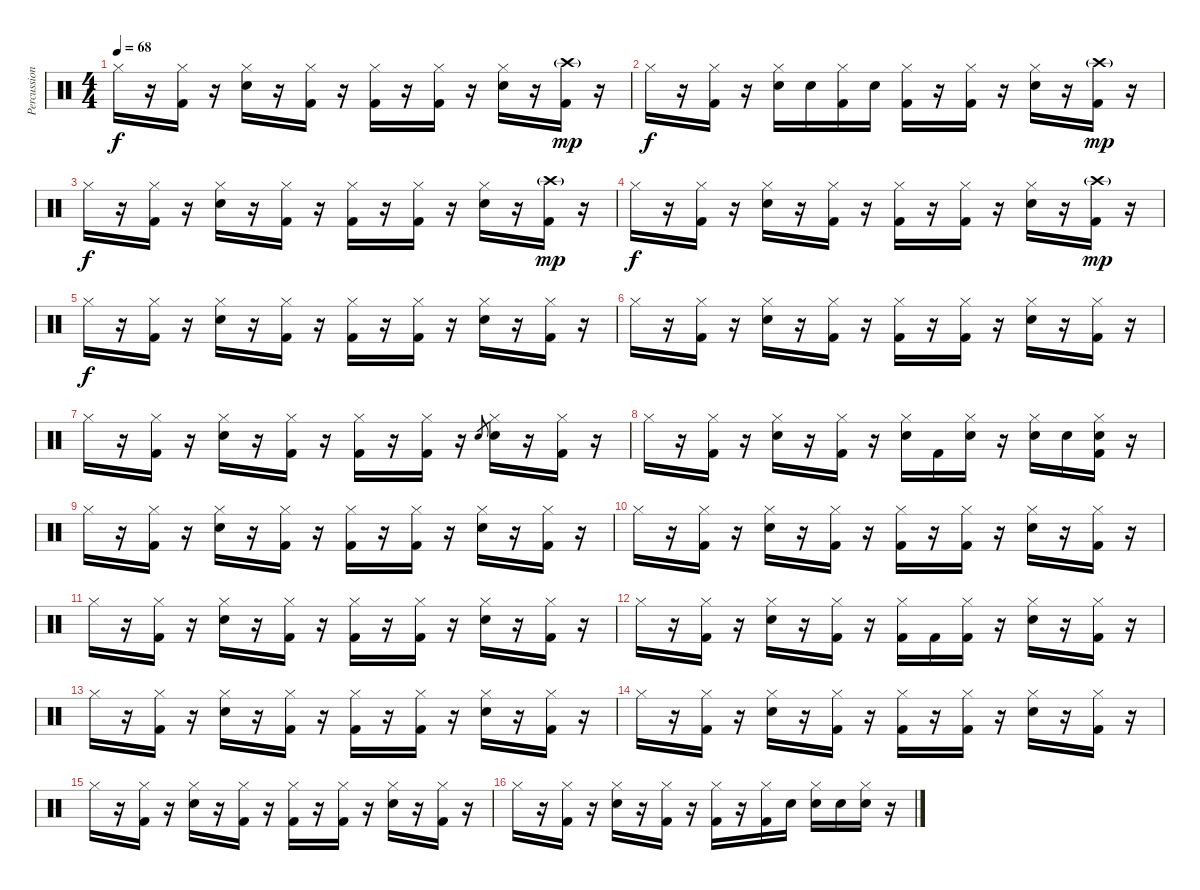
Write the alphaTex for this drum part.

\track ("Percussion" "Percussion") {instrument percussion}
\staff {score}
\articulation defaults
\ts (4 4)
\tempo 68
\clef neutral
\ks c "Hi-Hat (closed)".16{dy f}
r.16 ("Hi-Hat (closed)" "Kick (hit) 2").16 r.16 ("Hi-Hat (closed)" "Snare (hit) 2").16 r.16 ("Hi-Hat (closed)" "Kick (hit) 2").16 r.16 ("Hi-Hat (closed)" "Kick (hit) 2").16 r.16 ("Hi-Hat (closed)" "Kick (hit) 2").16 r.16 ("Hi-Hat (closed)" "Snare (hit) 2").16 r.16 ("Crash high (hit)"{g} "Kick (hit) 2").16{dy mp} r.16 |
"Hi-Hat (closed)".16{dy f} r.16 ("Hi-Hat (closed)" "Kick (hit) 2").16 r.16 ("Hi-Hat (closed)" "Snare (hit) 2").16 "Snare (hit) 2".16 ("Hi-Hat (closed)" "Kick (hit) 2").16 "Snare (hit) 2".16 ("Hi-Hat (closed)" "Kick (hit) 2").16 r.16 ("Hi-Hat (closed)" "Kick (hit) 2").16 r.16 ("Hi-Hat (closed)" "Snare (hit) 2").16 r.16 ("Crash high (hit)"{g} "Kick (hit) 2").16{dy mp} r.16 |
"Hi-Hat (closed)".16{dy f} r.16 ("Hi-Hat (closed)" "Kick (hit) 2").16 r.16 ("Hi-Hat (closed)" "Snare (hit) 2").16 r.16 ("Hi-Hat (closed)" "Kick (hit) 2").16 r.16 ("Hi-Hat (closed)" "Kick (hit) 2").16 r.16 ("Hi-Hat (closed)" "Kick (hit) 2").16 r.16 ("Hi-Hat (closed)" "Snare (hit) 2").16 r.16 ("Crash high (hit)"{g} "Kick (hit) 2").16{dy mp} r.16 |
"Hi-Hat (closed)".16{dy f} r.16 ("Hi-Hat (closed)" "Kick (hit) 2").16 r.16 ("Hi-Hat (closed)" "Snare (hit) 2").16 r.16 ("Hi-Hat (closed)" "Kick (hit) 2").16 r.16 ("Hi-Hat (closed)" "Kick (hit) 2").16 r.16 ("Hi-Hat (closed)" "Kick (hit) 2").16 r.16 ("Hi-Hat (closed)" "Snare (hit) 2").16 r.16 ("Crash high (hit)"{g} "Kick (hit) 2").16{dy mp} r.16 |
"Hi-Hat (closed)".16{dy f} r.16 ("Hi-Hat (closed)" "Kick (hit) 2").16 r.16 ("Hi-Hat (closed)" "Snare (hit) 2").16 r.16 ("Hi-Hat (closed)" "Kick (hit) 2").16 r.16 ("Hi-Hat (closed)" "Kick (hit) 2").16 r.16 ("Hi-Hat (closed)" "Kick (hit) 2").16 r.16 ("Hi-Hat (closed)" "Snare (hit) 2").16 r.16 ("Hi-Hat (closed)" "Kick (hit) 2").16 r.16 |
"Hi-Hat (closed)".16 r.16 ("Hi-Hat (closed)" "Kick (hit) 2").16 r.16 ("Hi-Hat (closed)" "Snare (hit) 2").16 r.16 ("Hi-Hat (closed)" "Kick (hit) 2").16 r.16 ("Hi-Hat (closed)" "Kick (hit) 2").16 r.16 ("Hi-Hat (closed)" "Kick (hit) 2").16 r.16 ("Hi-Hat (closed)" "Snare (hit) 2").16 r.16 ("Hi-Hat (closed)" "Kick (hit) 2").16 r.16 |
"Hi-Hat (closed)".16 r.16 ("Hi-Hat (closed)" "Kick (hit) 2").16 r.16 ("Hi-Hat (closed)" "Snare (hit) 2").16 r.16 ("Hi-Hat (closed)" "Kick (hit) 2").16 r.16 ("Hi-Hat (closed)" "Kick (hit) 2").16 r.16 ("Hi-Hat (closed)" "Kick (hit) 2").16 r.16 "Snare (hit) 2".8{gr} ("Hi-Hat (closed)" "Snare (hit) 2").16 r.16 ("Hi-Hat (closed)" "Kick (hit) 2").16 r.16 |
"Hi-Hat (closed)".16 r.16 ("Hi-Hat (closed)" "Kick (hit) 2").16 r.16 ("Hi-Hat (closed)" "Snare (hit) 2").16 r.16 ("Hi-Hat (closed)" "Kick (hit) 2").16 r.16 ("Hi-Hat (closed)" "Snare (hit) 2").16 "Kick (hit) 2".16 ("Hi-Hat (closed)" "Snare (hit) 2").16 r.16 ("Hi-Hat (closed)" "Snare (hit) 2").16 "Snare (hit) 2".16 ("Hi-Hat (closed)" "Snare (hit) 2" "Kick (hit) 2").16 r.16 |
"Hi-Hat (closed)".16 r.16 ("Hi-Hat (closed)" "Kick (hit) 2").16 r.16 ("Hi-Hat (closed)" "Snare (hit) 2").16 r.16 ("Hi-Hat (closed)" "Kick (hit) 2").16 r.16 ("Hi-Hat (closed)" "Kick (hit) 2").16 r.16 ("Hi-Hat (closed)" "Kick (hit) 2").16 r.16 ("Hi-Hat (closed)" "Snare (hit) 2").16 r.16 ("Hi-Hat (closed)" "Kick (hit) 2").16 r.16 |
"Hi-Hat (closed)".16 r.16 ("Hi-Hat (closed)" "Kick (hit) 2").16 r.16 ("Hi-Hat (closed)" "Snare (hit) 2").16 r.16 ("Hi-Hat (closed)" "Kick (hit) 2").16 r.16 ("Hi-Hat (closed)" "Kick (hit) 2").16 r.16 ("Hi-Hat (closed)" "Kick (hit) 2").16 r.16 ("Hi-Hat (closed)" "Snare (hit) 2").16 r.16 ("Hi-Hat (closed)" "Kick (hit) 2").16 r.16 |
"Hi-Hat (closed)".16 r.16 ("Hi-Hat (closed)" "Kick (hit) 2").16 r.16 ("Hi-Hat (closed)" "Snare (hit) 2").16 r.16 ("Hi-Hat (closed)" "Kick (hit) 2").16 r.16 ("Hi-Hat (closed)" "Kick (hit) 2").16 r.16 ("Hi-Hat (closed)" "Kick (hit) 2").16 r.16 ("Hi-Hat (closed)" "Snare (hit) 2").16 r.16 ("Hi-Hat (closed)" "Kick (hit) 2").16 r.16 |
"Hi-Hat (closed)".16 r.16 ("Hi-Hat (closed)" "Kick (hit) 2").16 r.16 ("Hi-Hat (closed)" "Snare (hit) 2").16 r.16 ("Hi-Hat (closed)" "Kick (hit) 2").16 r.16 ("Hi-Hat (closed)" "Kick (hit) 2").16 "Kick (hit) 2".16 ("Hi-Hat (closed)" "Kick (hit) 2").16 r.16 ("Hi-Hat (closed)" "Snare (hit) 2").16 r.16 ("Hi-Hat (closed)" "Kick (hit) 2").16 r.16 |
"Hi-Hat (closed)".16 r.16 ("Hi-Hat (closed)" "Kick (hit) 2").16 r.16 ("Hi-Hat (closed)" "Snare (hit) 2").16 r.16 ("Hi-Hat (closed)" "Kick (hit) 2").16 r.16 ("Hi-Hat (closed)" "Kick (hit) 2").16 r.16 ("Hi-Hat (closed)" "Kick (hit) 2").16 r.16 ("Hi-Hat (closed)" "Snare (hit) 2").16 r.16 ("Hi-Hat (closed)" "Kick (hit) 2").16 r.16 |
"Hi-Hat (closed)".16 r.16 ("Hi-Hat (closed)" "Kick (hit) 2").16 r.16 ("Hi-Hat (closed)" "Snare (hit) 2").16 r.16 ("Hi-Hat (closed)" "Kick (hit) 2").16 r.16 ("Hi-Hat (closed)" "Kick (hit) 2").16 r.16 ("Hi-Hat (closed)" "Kick (hit) 2").16 r.16 ("Hi-Hat (closed)" "Snare (hit) 2").16 r.16 ("Hi-Hat (closed)" "Kick (hit) 2").16 r.16 |
"Hi-Hat (closed)".16 r.16 ("Hi-Hat (closed)" "Kick (hit) 2").16 r.16 ("Hi-Hat (closed)" "Snare (hit) 2").16 r.16 ("Hi-Hat (closed)" "Kick (hit) 2").16 r.16 ("Hi-Hat (closed)" "Kick (hit) 2").16 r.16 ("Hi-Hat (closed)" "Kick (hit) 2").16 r.16 ("Hi-Hat (closed)" "Snare (hit) 2").16 r.16 ("Hi-Hat (closed)" "Kick (hit) 2").16 r.16 |
"Hi-Hat (closed)".16 r.16 ("Hi-Hat (closed)" "Kick (hit) 2").16 r.16 ("Hi-Hat (closed)" "Snare (hit) 2").16 r.16 ("Hi-Hat (closed)" "Kick (hit) 2").16 r.16 ("Hi-Hat (closed)" "Kick (hit) 2").16 r.16 ("Hi-Hat (closed)" "Kick (hit) 2").16 "Snare (hit) 2".16 ("Hi-Hat (closed)" "Snare (hit) 2").16 "Snare (hit) 2".16 ("Hi-Hat (closed)" "Snare (hit) 2").16 r.16
